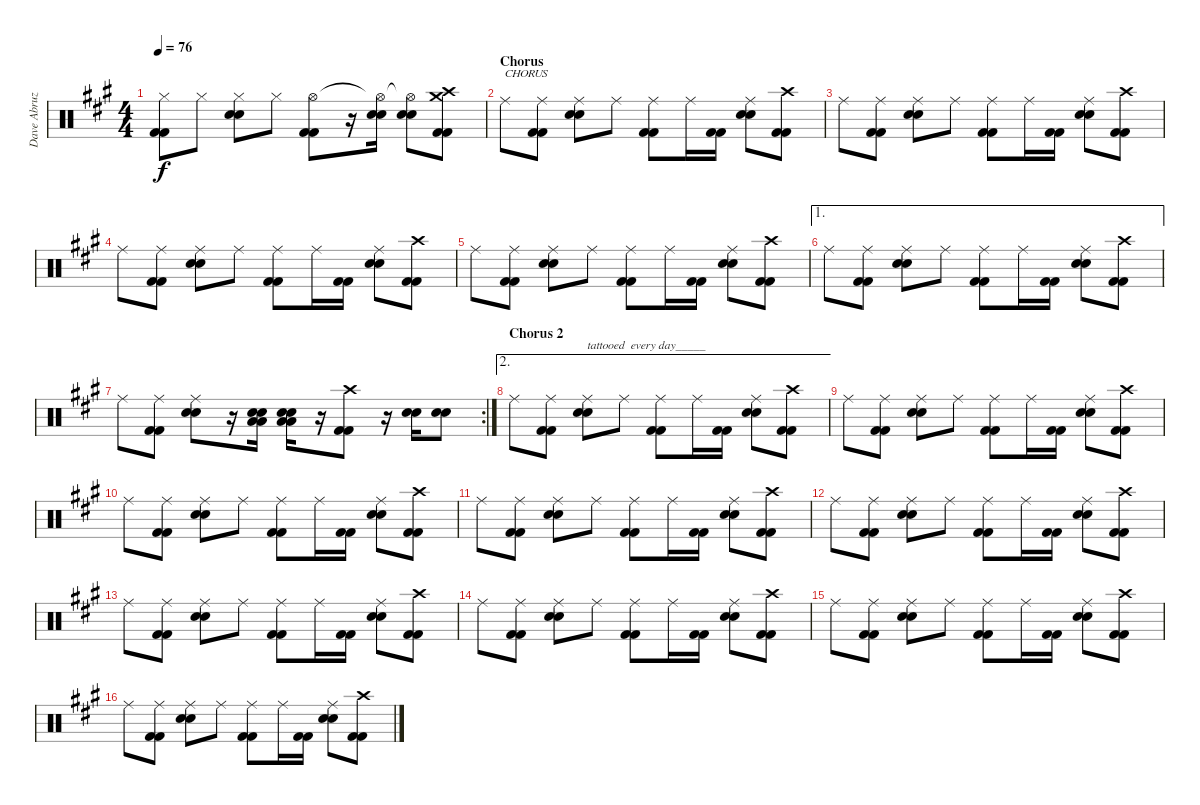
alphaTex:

\track ("Dave Abruzzese" "Dave Abruz") {instrument percussion}
\staff {score}
\articulation defaults
\ts (4 4)
\tempo 76
\clef neutral
\ks a
("Kick (hit) 2" "Kick (hit) 2" "Hi-Hat (closed)").8{dy f} "Hi-Hat (closed)".8 ("Electric Snare (hit)" "Electric Snare (hit)" "Hi-Hat (closed)").8 "Hi-Hat (closed)".8 ("Kick (hit) 2" "Kick (hit) 2" "Hi-Hat (open)").8 r.16 ("Electric Snare (hit)" "Electric Snare (hit)" "Hi-Hat (open)"{t}).16 ("Electric Snare (hit)" "Electric Snare (hit)" "Hi-Hat (open)"{t}).8 ("Crash medium (hit)" "Kick (hit) 2" "Kick (hit) 2" "Crash high (hit)").8 |
\section ("" "Chorus")
"Ride (middle)".8{txt "CHORUS"} ("Kick (hit) 2" "Kick (hit) 2" "Ride (middle)").8 ("Electric Snare (hit)" "Electric Snare (hit)" "Ride (middle)").8 "Ride (middle)".8 ("Kick (hit) 2" "Kick (hit) 2" "Ride (middle)").8 "Ride (middle)".16 ("Kick (hit) 2" "Kick (hit) 2").16 ("Electric Snare (hit)" "Electric Snare (hit)" "Ride (middle)").8 ("Kick (hit) 2" "Kick (hit) 2" "Crash high (hit)").8 |
"Ride (middle)".8 ("Kick (hit) 2" "Kick (hit) 2" "Ride (middle)").8 ("Electric Snare (hit)" "Electric Snare (hit)" "Ride (middle)").8 "Ride (middle)".8 ("Kick (hit) 2" "Kick (hit) 2" "Ride (middle)").8 "Ride (middle)".16 ("Kick (hit) 2" "Kick (hit) 2").16 ("Electric Snare (hit)" "Electric Snare (hit)" "Ride (middle)").8 ("Kick (hit) 2" "Kick (hit) 2" "Crash high (hit)").8 |
"Ride (middle)".8 ("Kick (hit) 2" "Kick (hit) 2" "Ride (middle)").8 ("Electric Snare (hit)" "Electric Snare (hit)" "Ride (middle)").8 "Ride (middle)".8 ("Kick (hit) 2" "Kick (hit) 2" "Ride (middle)").8 "Ride (middle)".16 ("Kick (hit) 2" "Kick (hit) 2").16 ("Electric Snare (hit)" "Electric Snare (hit)" "Ride (middle)").8 ("Kick (hit) 2" "Kick (hit) 2" "Crash high (hit)").8 |
"Ride (middle)".8 ("Kick (hit) 2" "Kick (hit) 2" "Ride (middle)").8 ("Electric Snare (hit)" "Electric Snare (hit)" "Ride (middle)").8 "Ride (middle)".8 ("Kick (hit) 2" "Kick (hit) 2" "Ride (middle)").8 "Ride (middle)".16 ("Kick (hit) 2" "Kick (hit) 2").16 ("Electric Snare (hit)" "Electric Snare (hit)" "Ride (middle)").8 ("Kick (hit) 2" "Kick (hit) 2" "Crash high (hit)").8 |
\ae 1 "Ride (middle)".8
("Kick (hit) 2" "Kick (hit) 2" "Ride (middle)").8 ("Electric Snare (hit)" "Electric Snare (hit)" "Ride (middle)").8 "Ride (middle)".8 ("Kick (hit) 2" "Kick (hit) 2" "Ride (middle)").8 "Ride (middle)".16 ("Kick (hit) 2" "Kick (hit) 2").16 ("Electric Snare (hit)" "Electric Snare (hit)" "Ride (middle)").8 ("Kick (hit) 2" "Kick (hit) 2" "Crash high (hit)").8 |
\rc 2 "Ride (middle)".8
("Kick (hit) 2" "Kick (hit) 2" "Ride (middle)").8 ("Electric Snare (hit)" "Electric Snare (hit)" "Ride (middle)").8 r.16 ("Low Tom (hit)" "Low Tom (hit)" "Electric Snare (hit)" "Electric Snare (hit)").16 ("Low Tom (hit)" "Low Tom (hit)" "Electric Snare (hit)" "Electric Snare (hit)").16 r.16 ("Kick (hit) 2" "Kick (hit) 2" "Crash high (hit)").8 r.16 ("Electric Snare (hit)" "Electric Snare (hit)").16 ("Electric Snare (hit)" "Electric Snare (hit)").8 |
\ae 2
\section ("" "Chorus 2")
"Ride (middle)".8 ("Kick (hit) 2" "Kick (hit) 2" "Ride (middle)").8 ("Electric Snare (hit)" "Electric Snare (hit)" "Ride (middle)").8{txt "tattooed  every day_____"} "Ride (middle)".8 ("Kick (hit) 2" "Kick (hit) 2" "Ride (middle)").8 "Ride (middle)".16 ("Kick (hit) 2" "Kick (hit) 2").16 ("Electric Snare (hit)" "Electric Snare (hit)" "Ride (middle)").8 ("Kick (hit) 2" "Kick (hit) 2" "Crash high (hit)").8 |
"Ride (middle)".8 ("Kick (hit) 2" "Kick (hit) 2" "Ride (middle)").8 ("Electric Snare (hit)" "Electric Snare (hit)" "Ride (middle)").8 "Ride (middle)".8 ("Kick (hit) 2" "Kick (hit) 2" "Ride (middle)").8 "Ride (middle)".16 ("Kick (hit) 2" "Kick (hit) 2").16 ("Electric Snare (hit)" "Electric Snare (hit)" "Ride (middle)").8 ("Kick (hit) 2" "Kick (hit) 2" "Crash high (hit)").8 |
"Ride (middle)".8 ("Kick (hit) 2" "Kick (hit) 2" "Ride (middle)").8 ("Electric Snare (hit)" "Electric Snare (hit)" "Ride (middle)").8 "Ride (middle)".8 ("Kick (hit) 2" "Kick (hit) 2" "Ride (middle)").8 "Ride (middle)".16 ("Kick (hit) 2" "Kick (hit) 2").16 ("Electric Snare (hit)" "Electric Snare (hit)" "Ride (middle)").8 ("Kick (hit) 2" "Kick (hit) 2" "Crash high (hit)").8 |
"Ride (middle)".8 ("Kick (hit) 2" "Kick (hit) 2" "Ride (middle)").8 ("Electric Snare (hit)" "Electric Snare (hit)" "Ride (middle)").8 "Ride (middle)".8 ("Kick (hit) 2" "Kick (hit) 2" "Ride (middle)").8 "Ride (middle)".16 ("Kick (hit) 2" "Kick (hit) 2").16 ("Electric Snare (hit)" "Electric Snare (hit)" "Ride (middle)").8 ("Kick (hit) 2" "Kick (hit) 2" "Crash high (hit)").8 |
"Ride (middle)".8 ("Kick (hit) 2" "Kick (hit) 2" "Ride (middle)").8 ("Electric Snare (hit)" "Electric Snare (hit)" "Ride (middle)").8 "Ride (middle)".8 ("Kick (hit) 2" "Kick (hit) 2" "Ride (middle)").8 "Ride (middle)".16 ("Kick (hit) 2" "Kick (hit) 2").16 ("Electric Snare (hit)" "Electric Snare (hit)" "Ride (middle)").8 ("Kick (hit) 2" "Kick (hit) 2" "Crash high (hit)").8 |
"Ride (middle)".8 ("Kick (hit) 2" "Kick (hit) 2" "Ride (middle)").8 ("Electric Snare (hit)" "Electric Snare (hit)" "Ride (middle)").8 "Ride (middle)".8 ("Kick (hit) 2" "Kick (hit) 2" "Ride (middle)").8 "Ride (middle)".16 ("Kick (hit) 2" "Kick (hit) 2").16 ("Electric Snare (hit)" "Electric Snare (hit)" "Ride (middle)").8 ("Kick (hit) 2" "Kick (hit) 2" "Crash high (hit)").8 |
"Ride (middle)".8 ("Kick (hit) 2" "Kick (hit) 2" "Ride (middle)").8 ("Electric Snare (hit)" "Electric Snare (hit)" "Ride (middle)").8 "Ride (middle)".8 ("Kick (hit) 2" "Kick (hit) 2" "Ride (middle)").8 "Ride (middle)".16 ("Kick (hit) 2" "Kick (hit) 2").16 ("Electric Snare (hit)" "Electric Snare (hit)" "Ride (middle)").8 ("Kick (hit) 2" "Kick (hit) 2" "Crash high (hit)").8 |
"Ride (middle)".8 ("Kick (hit) 2" "Kick (hit) 2" "Ride (middle)").8 ("Electric Snare (hit)" "Electric Snare (hit)" "Ride (middle)").8 "Ride (middle)".8 ("Kick (hit) 2" "Kick (hit) 2" "Ride (middle)").8 "Ride (middle)".16 ("Kick (hit) 2" "Kick (hit) 2").16 ("Electric Snare (hit)" "Electric Snare (hit)" "Ride (middle)").8 ("Kick (hit) 2" "Kick (hit) 2" "Crash high (hit)").8 |
"Ride (middle)".8 ("Kick (hit) 2" "Kick (hit) 2" "Ride (middle)").8 ("Electric Snare (hit)" "Electric Snare (hit)" "Ride (middle)").8 "Ride (middle)".8 ("Kick (hit) 2" "Kick (hit) 2" "Ride (middle)").8 "Ride (middle)".16 ("Kick (hit) 2" "Kick (hit) 2").16 ("Electric Snare (hit)" "Electric Snare (hit)" "Ride (middle)").8 ("Kick (hit) 2" "Kick (hit) 2" "Crash high (hit)").8
